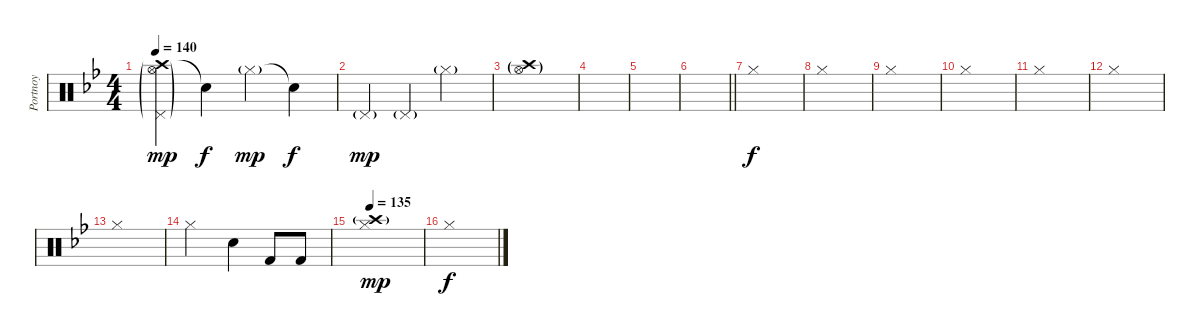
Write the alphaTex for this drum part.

\track ("Portnoy" "Portnoy") {instrument percussion}
\staff {score}
\articulation defaults
\ts (4 4)
\tempo 140
\clef neutral
\ks bb
("Crash high (hit)"{g} "Hi-Hat (open)"{g} "Pedal Hi-Hat (hit)"{g}).4{dy mp} "Snare (hit)"{t}.4{dy f} "Hi-Hat (closed)"{g}.4{dy mp} "Snare (hit)"{t}.4{dy f} |
"Pedal Hi-Hat (hit)"{g}.4{dy mp} "Pedal Hi-Hat (hit)"{g}.4 "Hi-Hat (closed)"{g}.2 |
("Crash high (hit)"{g} "Hi-Hat (open)"{g}).1 |
|
|
\barLineRight lightlight
|
"Hi-Hat (closed)".1{dy f volume 8} |
"Hi-Hat (closed)".1 |
"Hi-Hat (closed)".1 |
"Hi-Hat (closed)".1 |
"Hi-Hat (closed)".1 |
"Hi-Hat (closed)".1 |
"Hi-Hat (closed)".1 |
"Hi-Hat (closed)".2 "Snare (hit) 2".4 "Kick (hit) 2".8 "Kick (hit) 2".8 |
\tempo 135
("Crash high (hit)"{g} "Hi-Hat (closed)").1{dy mp} |
"Hi-Hat (closed)".1{dy f}
